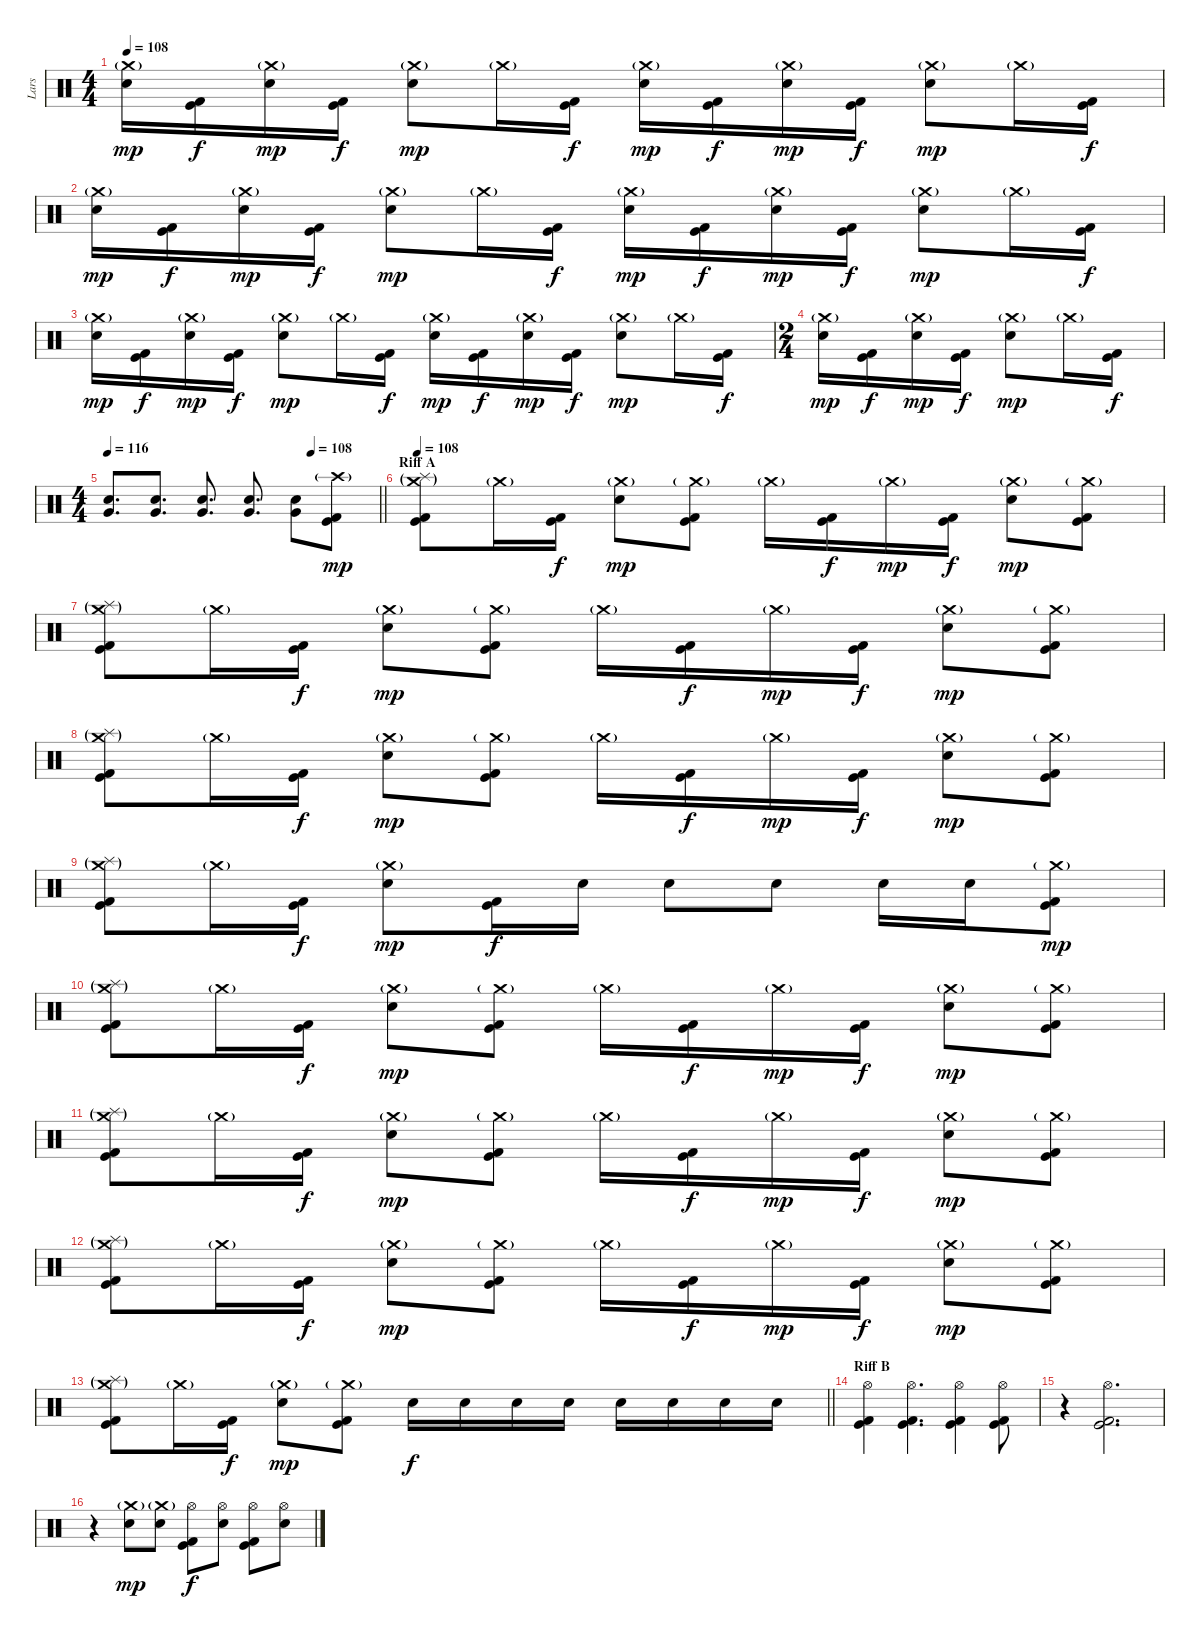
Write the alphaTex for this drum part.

\track ("Lars" "Lars") {instrument percussion}
\staff {score}
\articulation defaults
\ts (4 4)
\tempo 108
\clef neutral
\ks c
("Crash medium (hit)"{g} "Electric Snare (hit)").16{dy mp} ("Kick (hit)" "Kick (hit) 2").16{dy f} ("Crash medium (hit)"{g} "Electric Snare (hit)").16{dy mp} ("Kick (hit)" "Kick (hit) 2").16{dy f} ("Crash medium (hit)"{g} "Electric Snare (hit)").8{dy mp} "Crash medium (hit)"{g}.16 ("Kick (hit)" "Kick (hit) 2").16{dy f} ("Crash medium (hit)"{g} "Electric Snare (hit)").16{dy mp} ("Kick (hit)" "Kick (hit) 2").16{dy f} ("Crash medium (hit)"{g} "Electric Snare (hit)").16{dy mp} ("Kick (hit)" "Kick (hit) 2").16{dy f} ("Crash medium (hit)"{g} "Electric Snare (hit)").8{dy mp} "Crash medium (hit)"{g}.16 ("Kick (hit)" "Kick (hit) 2").16{dy f} |
("Crash medium (hit)"{g} "Electric Snare (hit)").16{dy mp} ("Kick (hit)" "Kick (hit) 2").16{dy f} ("Crash medium (hit)"{g} "Electric Snare (hit)").16{dy mp} ("Kick (hit)" "Kick (hit) 2").16{dy f} ("Crash medium (hit)"{g} "Electric Snare (hit)").8{dy mp} "Crash medium (hit)"{g}.16 ("Kick (hit)" "Kick (hit) 2").16{dy f} ("Crash medium (hit)"{g} "Electric Snare (hit)").16{dy mp} ("Kick (hit)" "Kick (hit) 2").16{dy f} ("Crash medium (hit)"{g} "Electric Snare (hit)").16{dy mp} ("Kick (hit)" "Kick (hit) 2").16{dy f} ("Crash medium (hit)"{g} "Electric Snare (hit)").8{dy mp} "Crash medium (hit)"{g}.16 ("Kick (hit)" "Kick (hit) 2").16{dy f} |
("Crash medium (hit)"{g} "Electric Snare (hit)").16{dy mp} ("Kick (hit)" "Kick (hit) 2").16{dy f} ("Crash medium (hit)"{g} "Electric Snare (hit)").16{dy mp} ("Kick (hit)" "Kick (hit) 2").16{dy f} ("Crash medium (hit)"{g} "Electric Snare (hit)").8{dy mp} "Crash medium (hit)"{g}.16 ("Kick (hit)" "Kick (hit) 2").16{dy f} ("Crash medium (hit)"{g} "Electric Snare (hit)").16{dy mp} ("Kick (hit)" "Kick (hit) 2").16{dy f} ("Crash medium (hit)"{g} "Electric Snare (hit)").16{dy mp} ("Kick (hit)" "Kick (hit) 2").16{dy f} ("Crash medium (hit)"{g} "Electric Snare (hit)").8{dy mp} "Crash medium (hit)"{g}.16 ("Kick (hit)" "Kick (hit) 2").16{dy f} |
\ts (2 4)
("Crash medium (hit)"{g} "Electric Snare (hit)").16{dy mp} ("Kick (hit)" "Kick (hit) 2").16{dy f} ("Crash medium (hit)"{g} "Electric Snare (hit)").16{dy mp} ("Kick (hit)" "Kick (hit) 2").16{dy f} ("Crash medium (hit)"{g} "Electric Snare (hit)").8{dy mp} "Crash medium (hit)"{g}.16 ("Kick (hit)" "Kick (hit) 2").16{dy f} |
\ts (4 4)
\tempo 116
\tempo (108 0.75)
\barLineRight lightlight
("Electric Snare (hit)" "Very Low Tom (hit)").8{d} ("Electric Snare (hit)" "Very Low Tom (hit)").8{d} ("Electric Snare (hit)" "Very Low Tom (hit)").8{d} ("Electric Snare (hit)" "Very Low Tom (hit)").8{d} ("Electric Snare (hit)" "Very Low Tom (hit)").8 ("Crash high (hit)"{g} "Kick (hit)" "Kick (hit) 2").8{dy mp} |
\section ("" "Riff A")
\tempo 108
("Crash medium (hit)"{g} "Splash (hit)"{g} "Kick (hit)" "Kick (hit) 2").8 "Crash medium (hit)"{g}.16 ("Kick (hit)" "Kick (hit) 2").16{dy f} ("Crash medium (hit)"{g} "Electric Snare (hit)").8{dy mp} ("Crash medium (hit)"{g} "Kick (hit)" "Kick (hit) 2").8 "Crash medium (hit)"{g}.16 ("Kick (hit)" "Kick (hit) 2").16{dy f} "Crash medium (hit)"{g}.16{dy mp} ("Kick (hit)" "Kick (hit) 2").16{dy f} ("Crash medium (hit)"{g} "Electric Snare (hit)").8{dy mp} ("Crash medium (hit)"{g} "Kick (hit)" "Kick (hit) 2").8 |
("Crash medium (hit)"{g} "Splash (hit)"{g} "Kick (hit)" "Kick (hit) 2").8 "Crash medium (hit)"{g}.16 ("Kick (hit)" "Kick (hit) 2").16{dy f} ("Crash medium (hit)"{g} "Electric Snare (hit)").8{dy mp} ("Crash medium (hit)"{g} "Kick (hit)" "Kick (hit) 2").8 "Crash medium (hit)"{g}.16 ("Kick (hit)" "Kick (hit) 2").16{dy f} "Crash medium (hit)"{g}.16{dy mp} ("Kick (hit)" "Kick (hit) 2").16{dy f} ("Crash medium (hit)"{g} "Electric Snare (hit)").8{dy mp} ("Crash medium (hit)"{g} "Kick (hit)" "Kick (hit) 2").8 |
("Crash medium (hit)"{g} "Splash (hit)"{g} "Kick (hit)" "Kick (hit) 2").8 "Crash medium (hit)"{g}.16 ("Kick (hit)" "Kick (hit) 2").16{dy f} ("Crash medium (hit)"{g} "Electric Snare (hit)").8{dy mp} ("Crash medium (hit)"{g} "Kick (hit)" "Kick (hit) 2").8 "Crash medium (hit)"{g}.16 ("Kick (hit)" "Kick (hit) 2").16{dy f} "Crash medium (hit)"{g}.16{dy mp} ("Kick (hit)" "Kick (hit) 2").16{dy f} ("Crash medium (hit)"{g} "Electric Snare (hit)").8{dy mp} ("Crash medium (hit)"{g} "Kick (hit)" "Kick (hit) 2").8 |
("Crash medium (hit)"{g} "Splash (hit)"{g} "Kick (hit)" "Kick (hit) 2").8 "Crash medium (hit)"{g}.16 ("Kick (hit)" "Kick (hit) 2").16{dy f} ("Crash medium (hit)"{g} "Electric Snare (hit)").8{dy mp} ("Kick (hit)" "Kick (hit) 2").16{dy f} "Electric Snare (hit)".16 "Electric Snare (hit)".8 "Electric Snare (hit)".8 "Electric Snare (hit)".16 "Electric Snare (hit)".16 ("Crash medium (hit)"{g} "Kick (hit)" "Kick (hit) 2").8{dy mp} |
("Crash medium (hit)"{g} "Splash (hit)"{g} "Kick (hit)" "Kick (hit) 2").8 "Crash medium (hit)"{g}.16 ("Kick (hit)" "Kick (hit) 2").16{dy f} ("Crash medium (hit)"{g} "Electric Snare (hit)").8{dy mp} ("Crash medium (hit)"{g} "Kick (hit)" "Kick (hit) 2").8 "Crash medium (hit)"{g}.16 ("Kick (hit)" "Kick (hit) 2").16{dy f} "Crash medium (hit)"{g}.16{dy mp} ("Kick (hit)" "Kick (hit) 2").16{dy f} ("Crash medium (hit)"{g} "Electric Snare (hit)").8{dy mp} ("Crash medium (hit)"{g} "Kick (hit)" "Kick (hit) 2").8 |
("Crash medium (hit)"{g} "Splash (hit)"{g} "Kick (hit)" "Kick (hit) 2").8 "Crash medium (hit)"{g}.16 ("Kick (hit)" "Kick (hit) 2").16{dy f} ("Crash medium (hit)"{g} "Electric Snare (hit)").8{dy mp} ("Crash medium (hit)"{g} "Kick (hit)" "Kick (hit) 2").8 "Crash medium (hit)"{g}.16 ("Kick (hit)" "Kick (hit) 2").16{dy f} "Crash medium (hit)"{g}.16{dy mp} ("Kick (hit)" "Kick (hit) 2").16{dy f} ("Crash medium (hit)"{g} "Electric Snare (hit)").8{dy mp} ("Crash medium (hit)"{g} "Kick (hit)" "Kick (hit) 2").8 |
("Crash medium (hit)"{g} "Splash (hit)"{g} "Kick (hit)" "Kick (hit) 2").8 "Crash medium (hit)"{g}.16 ("Kick (hit)" "Kick (hit) 2").16{dy f} ("Crash medium (hit)"{g} "Electric Snare (hit)").8{dy mp} ("Crash medium (hit)"{g} "Kick (hit)" "Kick (hit) 2").8 "Crash medium (hit)"{g}.16 ("Kick (hit)" "Kick (hit) 2").16{dy f} "Crash medium (hit)"{g}.16{dy mp} ("Kick (hit)" "Kick (hit) 2").16{dy f} ("Crash medium (hit)"{g} "Electric Snare (hit)").8{dy mp} ("Crash medium (hit)"{g} "Kick (hit)" "Kick (hit) 2").8 |
\barLineRight lightlight
("Crash medium (hit)"{g} "Splash (hit)"{g} "Kick (hit)" "Kick (hit) 2").8 "Crash medium (hit)"{g}.16 ("Kick (hit)" "Kick (hit) 2").16{dy f} ("Crash medium (hit)"{g} "Electric Snare (hit)").8{dy mp} ("Crash medium (hit)"{g} "Kick (hit)" "Kick (hit) 2").8 "Electric Snare (hit)".16{dy f} "Electric Snare (hit)".16 "Electric Snare (hit)".16 "Electric Snare (hit)".16 "Electric Snare (hit)".16 "Electric Snare (hit)".16 "Electric Snare (hit)".16 "Electric Snare (hit)".16 |
\section ("" "Riff B")
("Hi-Hat (open)" "Kick (hit)" "Kick (hit) 2").4 ("Hi-Hat (open)" "Kick (hit)" "Kick (hit) 2").4{d} ("Hi-Hat (open)" "Kick (hit)" "Kick (hit) 2").4 ("Hi-Hat (open)" "Kick (hit)" "Kick (hit) 2").8 |
r.4 ("Hi-Hat (open)" "Kick (hit)" "Kick (hit) 2").2{d} |
r.4 ("Crash medium (hit)"{g} "Electric Snare (hit)").8{dy mp} ("Crash medium (hit)"{g} "Electric Snare (hit)").8 ("Hi-Hat (open)" "Kick (hit)" "Kick (hit) 2").8{dy f} ("Hi-Hat (open)" "Electric Snare (hit)").8 ("Hi-Hat (open)" "Kick (hit)" "Kick (hit) 2").8 ("Hi-Hat (open)" "Electric Snare (hit)").8
